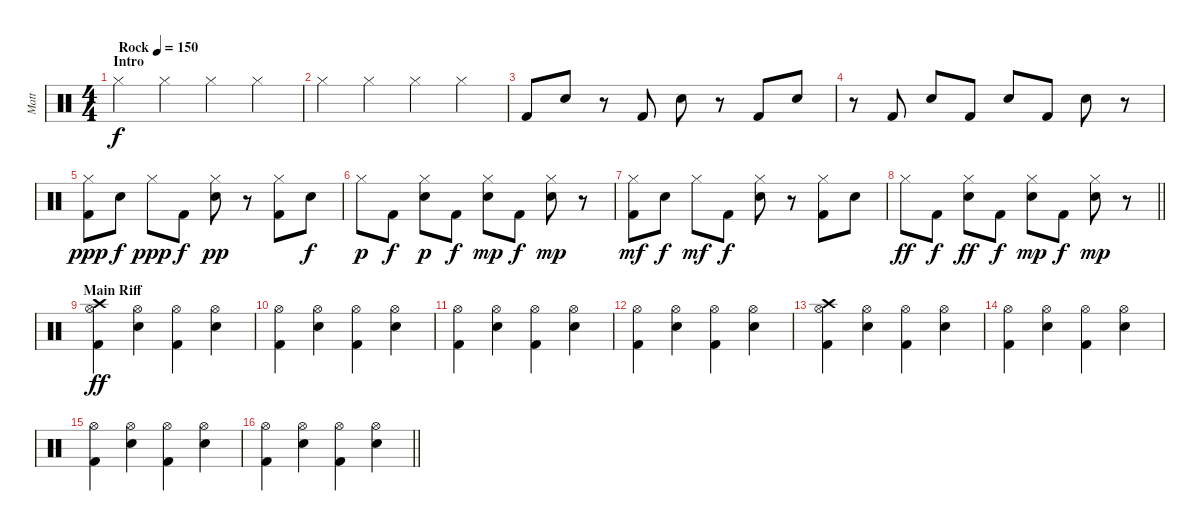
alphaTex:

\track ("Matt" "Matt") {instrument percussion}
\staff {score}
\articulation defaults
\ts (4 4)
\section ("" "Intro")
\tempo (150 "Rock")
\clef neutral
\ks c "Hi-Hat (closed)".4{dy f} "Hi-Hat (closed)".4 "Hi-Hat (closed)".4 "Hi-Hat (closed)".4
|
"Hi-Hat (closed)".4 "Hi-Hat (closed)".4 "Hi-Hat (closed)".4 "Hi-Hat (closed)".4 |
"Kick (hit) 2".8 "Snare (hit) 2".8 r.8 "Kick (hit) 2".8 "Snare (hit) 2".8 r.8 "Kick (hit) 2".8 "Snare (hit) 2".8 |
r.8 "Kick (hit) 2".8 "Snare (hit) 2".8 "Kick (hit) 2".8 "Snare (hit) 2".8 "Kick (hit) 2".8 "Snare (hit) 2".8 r.8 |
("Hi-Hat (closed)" "Kick (hit) 2").8{dy ppp} "Snare (hit) 2".8{dy f} "Hi-Hat (closed)".8{dy ppp} "Kick (hit) 2".8{dy f} ("Hi-Hat (closed)" "Snare (hit) 2").8{dy pp} r.8 ("Hi-Hat (closed)" "Kick (hit) 2").8 "Snare (hit) 2".8{dy f} |
"Hi-Hat (closed)".8{dy p} "Kick (hit) 2".8{dy f} ("Hi-Hat (closed)" "Snare (hit) 2").8{dy p} "Kick (hit) 2".8{dy f} ("Hi-Hat (closed)" "Snare (hit) 2").8{dy mp} "Kick (hit) 2".8{dy f} ("Hi-Hat (closed)" "Snare (hit) 2").8{dy mp} r.8 |
("Hi-Hat (closed)" "Kick (hit) 2").8{dy mf} "Snare (hit) 2".8{dy f} "Hi-Hat (closed)".8{dy mf} "Kick (hit) 2".8{dy f} ("Hi-Hat (closed)" "Snare (hit) 2").8 r.8 ("Hi-Hat (closed)" "Kick (hit) 2").8 "Snare (hit) 2".8 |
\barLineRight lightlight "Hi-Hat (closed)".8{dy ff} "Kick (hit) 2".8{dy f}
("Hi-Hat (closed)" "Snare (hit) 2").8{dy ff} "Kick (hit) 2".8{dy f} ("Hi-Hat (closed)" "Snare (hit) 2").8{dy mp} "Kick (hit) 2".8{dy f} ("Hi-Hat (closed)" "Snare (hit) 2").8{dy mp} r.8 |
\section ("" "Main Riff")
("Hi-Hat (open)" "Kick (hit) 2" "Crash high (hit)").4{dy ff} ("Hi-Hat (open)" "Snare (hit) 2").4 ("Hi-Hat (open)" "Kick (hit) 2").4 ("Hi-Hat (open)" "Snare (hit) 2").4 |
("Hi-Hat (open)" "Kick (hit) 2").4 ("Hi-Hat (open)" "Snare (hit) 2").4 ("Hi-Hat (open)" "Kick (hit) 2").4 ("Hi-Hat (open)" "Snare (hit) 2").4 |
("Hi-Hat (open)" "Kick (hit) 2").4 ("Hi-Hat (open)" "Snare (hit) 2").4 ("Hi-Hat (open)" "Kick (hit) 2").4 ("Hi-Hat (open)" "Snare (hit) 2").4 |
("Hi-Hat (open)" "Kick (hit) 2").4 ("Hi-Hat (open)" "Snare (hit) 2").4 ("Hi-Hat (open)" "Kick (hit) 2").4 ("Hi-Hat (open)" "Snare (hit) 2").4 |
("Hi-Hat (open)" "Kick (hit) 2" "Crash high (hit)").4 ("Hi-Hat (open)" "Snare (hit) 2").4 ("Hi-Hat (open)" "Kick (hit) 2").4 ("Hi-Hat (open)" "Snare (hit) 2").4 |
("Hi-Hat (open)" "Kick (hit) 2").4 ("Hi-Hat (open)" "Snare (hit) 2").4 ("Hi-Hat (open)" "Kick (hit) 2").4 ("Hi-Hat (open)" "Snare (hit) 2").4 |
("Hi-Hat (open)" "Kick (hit) 2").4 ("Hi-Hat (open)" "Snare (hit) 2").4 ("Hi-Hat (open)" "Kick (hit) 2").4 ("Hi-Hat (open)" "Snare (hit) 2").4 |
\barLineRight lightlight
("Hi-Hat (open)" "Kick (hit) 2").4 ("Hi-Hat (open)" "Snare (hit) 2").4 ("Hi-Hat (open)" "Kick (hit) 2").4 ("Hi-Hat (open)" "Snare (hit) 2").4
